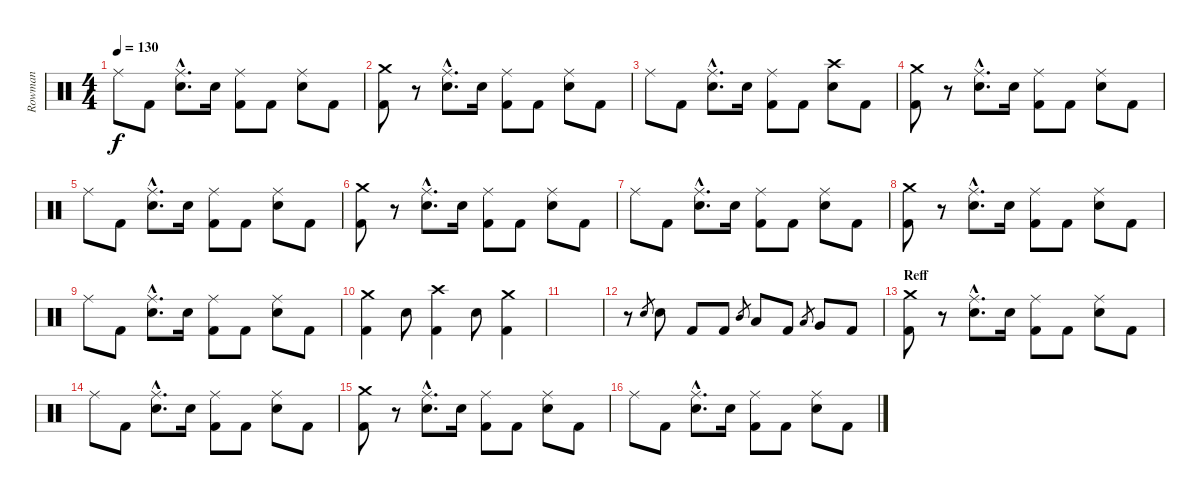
\track ("Rowman" "Rowman") {instrument percussion}
\staff {score}
\articulation defaults
\ts (4 4)
\tempo 130
\clef neutral
\ks c "Ride (middle)".8{dy f} "Kick (hit) 2".8
("Electric Snare (hit)"{hac} "Ride (middle)"{hac}).8{d} "Electric Snare (hit)".16 ("Kick (hit) 2" "Ride (middle)").8 "Kick (hit) 2".8 ("Electric Snare (hit)" "Ride (middle)").8 "Kick (hit) 2".8 |
("Kick (hit) 2" "Crash medium (hit)").8 r.8 ("Electric Snare (hit)"{hac} "Ride (middle)"{hac}).8{d} "Electric Snare (hit)".16 ("Kick (hit) 2" "Ride (middle)").8 "Kick (hit) 2".8 ("Electric Snare (hit)" "Ride (middle)").8 "Kick (hit) 2".8 |
"Ride (middle)".8 "Kick (hit) 2".8 ("Electric Snare (hit)"{hac} "Ride (middle)"{hac}).8{d} "Electric Snare (hit)".16 ("Kick (hit) 2" "Ride (middle)").8 "Kick (hit) 2".8 ("Electric Snare (hit)" "Crash high (hit)").8 "Kick (hit) 2".8 |
("Kick (hit) 2" "Crash medium (hit)").8 r.8 ("Electric Snare (hit)"{hac} "Ride (middle)"{hac}).8{d} "Electric Snare (hit)".16 ("Kick (hit) 2" "Ride (middle)").8 "Kick (hit) 2".8 ("Electric Snare (hit)" "Ride (middle)").8 "Kick (hit) 2".8 |
"Ride (middle)".8 "Kick (hit) 2".8 ("Electric Snare (hit)"{hac} "Ride (middle)"{hac}).8{d} "Electric Snare (hit)".16 ("Kick (hit) 2" "Ride (middle)").8 "Kick (hit) 2".8 ("Electric Snare (hit)" "Ride (middle)").8 "Kick (hit) 2".8 |
("Kick (hit) 2" "Crash medium (hit)").8 r.8 ("Electric Snare (hit)"{hac} "Ride (middle)"{hac}).8{d} "Electric Snare (hit)".16 ("Kick (hit) 2" "Ride (middle)").8 "Kick (hit) 2".8 ("Electric Snare (hit)" "Ride (middle)").8 "Kick (hit) 2".8 |
"Ride (middle)".8 "Kick (hit) 2".8 ("Electric Snare (hit)"{hac} "Ride (middle)"{hac}).8{d} "Electric Snare (hit)".16 ("Kick (hit) 2" "Ride (middle)").8 "Kick (hit) 2".8 ("Electric Snare (hit)" "Ride (middle)").8 "Kick (hit) 2".8 |
("Kick (hit) 2" "Crash medium (hit)").8 r.8 ("Electric Snare (hit)"{hac} "Ride (middle)"{hac}).8{d} "Electric Snare (hit)".16 ("Kick (hit) 2" "Ride (middle)").8 "Kick (hit) 2".8 ("Electric Snare (hit)" "Ride (middle)").8 "Kick (hit) 2".8 |
"Ride (middle)".8 "Kick (hit) 2".8 ("Electric Snare (hit)"{hac} "Ride (middle)"{hac}).8{d} "Electric Snare (hit)".16 ("Kick (hit) 2" "Ride (middle)").8 "Kick (hit) 2".8 ("Electric Snare (hit)" "Ride (middle)").8 "Kick (hit) 2".8 |
("Kick (hit) 2" "Crash medium (hit)").4 "Electric Snare (hit)".8 ("Kick (hit) 2" "Crash high (hit)").4 "Electric Snare (hit)".8 ("Kick (hit) 2" "Crash medium (hit)").4 |
|
r.8 "Electric Snare (hit)".8{gr} "Electric Snare (hit)".8 "Kick (hit) 2".8 "Kick (hit) 2".8 "Mid Tom (hit)".8{gr} "Low Tom (hit)".8 "Kick (hit) 2".8 "Low Tom (hit)".8{gr} "Very Low Tom (hit)".8 "Kick (hit) 2".8 |
\section ("" "Reff")
("Kick (hit) 2" "Crash medium (hit)").8 r.8 ("Electric Snare (hit)"{hac} "Ride (middle)"{hac}).8{d} "Electric Snare (hit)".16 ("Kick (hit) 2" "Ride (middle)").8 "Kick (hit) 2".8 ("Electric Snare (hit)" "Ride (middle)").8 "Kick (hit) 2".8 |
"Ride (middle)".8 "Kick (hit) 2".8 ("Electric Snare (hit)"{hac} "Ride (middle)"{hac}).8{d} "Electric Snare (hit)".16 ("Kick (hit) 2" "Ride (middle)").8 "Kick (hit) 2".8 ("Electric Snare (hit)" "Ride (middle)").8 "Kick (hit) 2".8 |
("Kick (hit) 2" "Crash medium (hit)").8 r.8 ("Electric Snare (hit)"{hac} "Ride (middle)"{hac}).8{d} "Electric Snare (hit)".16 ("Kick (hit) 2" "Ride (middle)").8 "Kick (hit) 2".8 ("Electric Snare (hit)" "Ride (middle)").8 "Kick (hit) 2".8 |
"Ride (middle)".8 "Kick (hit) 2".8 ("Electric Snare (hit)"{hac} "Ride (middle)"{hac}).8{d} "Electric Snare (hit)".16 ("Kick (hit) 2" "Ride (middle)").8 "Kick (hit) 2".8 ("Electric Snare (hit)" "Ride (middle)").8 "Kick (hit) 2".8
